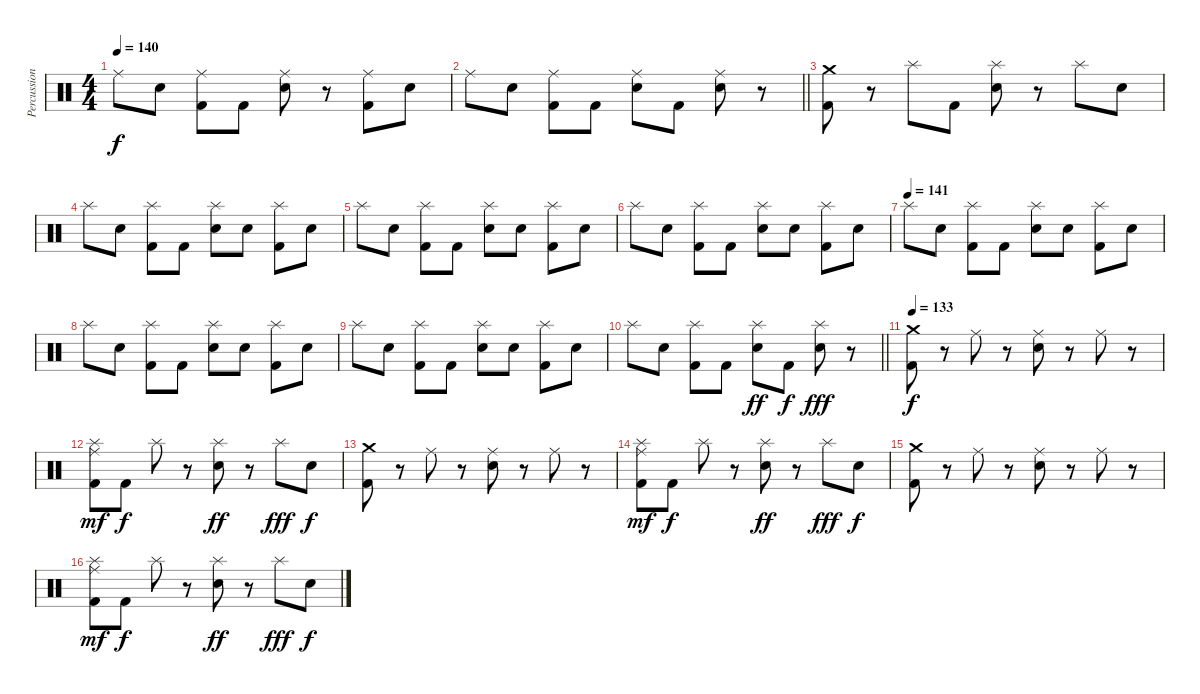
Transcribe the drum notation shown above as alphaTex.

\track ("Percussion" "Percussion") {instrument percussion}
\staff {score}
\articulation defaults
\ts (4 4)
\tempo 140
\clef neutral
\ks c "Ride (middle)".8{dy f} "Electric Snare (hit)".8
("Ride (middle)" "Kick (hit) 2").8 "Kick (hit) 2".8 ("Ride (middle)" "Electric Snare (hit)").8 r.8 ("Ride (middle)" "Kick (hit) 2").8 "Electric Snare (hit)".8 |
\barLineRight lightlight "Ride (middle)".8 "Electric Snare (hit)".8
("Ride (middle)" "Kick (hit) 2").8 "Kick (hit) 2".8 ("Ride (middle)" "Electric Snare (hit)").8 "Kick (hit) 2".8 ("Ride (middle)" "Electric Snare (hit)").8 r.8 |
\section ("" "")
("Crash medium (hit)" "Kick (hit) 2").8 r.8 "Splash (hit)".8 "Kick (hit) 2".8 ("Splash (hit)" "Electric Snare (hit)").8 r.8 "Splash (hit)".8 "Electric Snare (hit)".8 |
"Splash (hit)".8 "Electric Snare (hit)".8 ("Splash (hit)" "Kick (hit) 2").8 "Kick (hit) 2".8 ("Splash (hit)" "Electric Snare (hit)").8 "Electric Snare (hit)".8 ("Splash (hit)" "Kick (hit) 2").8 "Electric Snare (hit)".8 |
"Splash (hit)".8 "Electric Snare (hit)".8 ("Splash (hit)" "Kick (hit) 2").8 "Kick (hit) 2".8 ("Splash (hit)" "Electric Snare (hit)").8 "Electric Snare (hit)".8 ("Splash (hit)" "Kick (hit) 2").8 "Electric Snare (hit)".8 |
"Splash (hit)".8 "Electric Snare (hit)".8 ("Splash (hit)" "Kick (hit) 2").8 "Kick (hit) 2".8 ("Splash (hit)" "Electric Snare (hit)").8 "Electric Snare (hit)".8 ("Splash (hit)" "Kick (hit) 2").8 "Electric Snare (hit)".8 |
\tempo (141)
"Splash (hit)".8 "Electric Snare (hit)".8 ("Splash (hit)" "Kick (hit) 2").8 "Kick (hit) 2".8 ("Splash (hit)" "Electric Snare (hit)").8 "Electric Snare (hit)".8 ("Splash (hit)" "Kick (hit) 2").8 "Electric Snare (hit)".8 |
"Splash (hit)".8 "Electric Snare (hit)".8 ("Splash (hit)" "Kick (hit) 2").8 "Kick (hit) 2".8 ("Splash (hit)" "Electric Snare (hit)").8 "Electric Snare (hit)".8 ("Splash (hit)" "Kick (hit) 2").8 "Electric Snare (hit)".8 |
"Splash (hit)".8 "Electric Snare (hit)".8 ("Splash (hit)" "Kick (hit) 2").8 "Kick (hit) 2".8 ("Splash (hit)" "Electric Snare (hit)").8 "Electric Snare (hit)".8 ("Splash (hit)" "Kick (hit) 2").8 "Electric Snare (hit)".8 |
\barLineRight lightlight "Splash (hit)".8 "Electric Snare (hit)".8
("Splash (hit)" "Kick (hit) 2").8 "Kick (hit) 2".8 ("Splash (hit)" "Electric Snare (hit)").8{dy ff} "Kick (hit) 2".8{dy f} ("Splash (hit)" "Electric Snare (hit)").8{dy fff} r.8 |
\section ("" "")
\tempo 133
("Crash medium (hit)" "Kick (hit) 2").8{dy f} r.8 "Ride (middle)".8 r.8 ("Ride (middle)" "Electric Snare (hit)").8 r.8 "Ride (middle)".8 r.8 |
("Ride (middle)" "Splash (hit)" "Kick (hit) 2").8{dy mf} "Kick (hit) 2".8{dy f} "Splash (hit)".8 r.8 ("Splash (hit)" "Electric Snare (hit)").8{dy ff} r.8 "Splash (hit)".8{dy fff} "Electric Snare (hit)".8{dy f} |
("Crash medium (hit)" "Kick (hit) 2").8 r.8 "Ride (middle)".8 r.8 ("Ride (middle)" "Electric Snare (hit)").8 r.8 "Ride (middle)".8 r.8 |
("Ride (middle)" "Splash (hit)" "Kick (hit) 2").8{dy mf} "Kick (hit) 2".8{dy f} "Splash (hit)".8 r.8 ("Splash (hit)" "Electric Snare (hit)").8{dy ff} r.8 "Splash (hit)".8{dy fff} "Electric Snare (hit)".8{dy f} |
("Crash medium (hit)" "Kick (hit) 2").8 r.8 "Ride (middle)".8 r.8 ("Ride (middle)" "Electric Snare (hit)").8 r.8 "Ride (middle)".8 r.8 |
("Ride (middle)" "Splash (hit)" "Kick (hit) 2").8{dy mf} "Kick (hit) 2".8{dy f} "Splash (hit)".8 r.8 ("Splash (hit)" "Electric Snare (hit)").8{dy ff} r.8 "Splash (hit)".8{dy fff} "Electric Snare (hit)".8{dy f}
